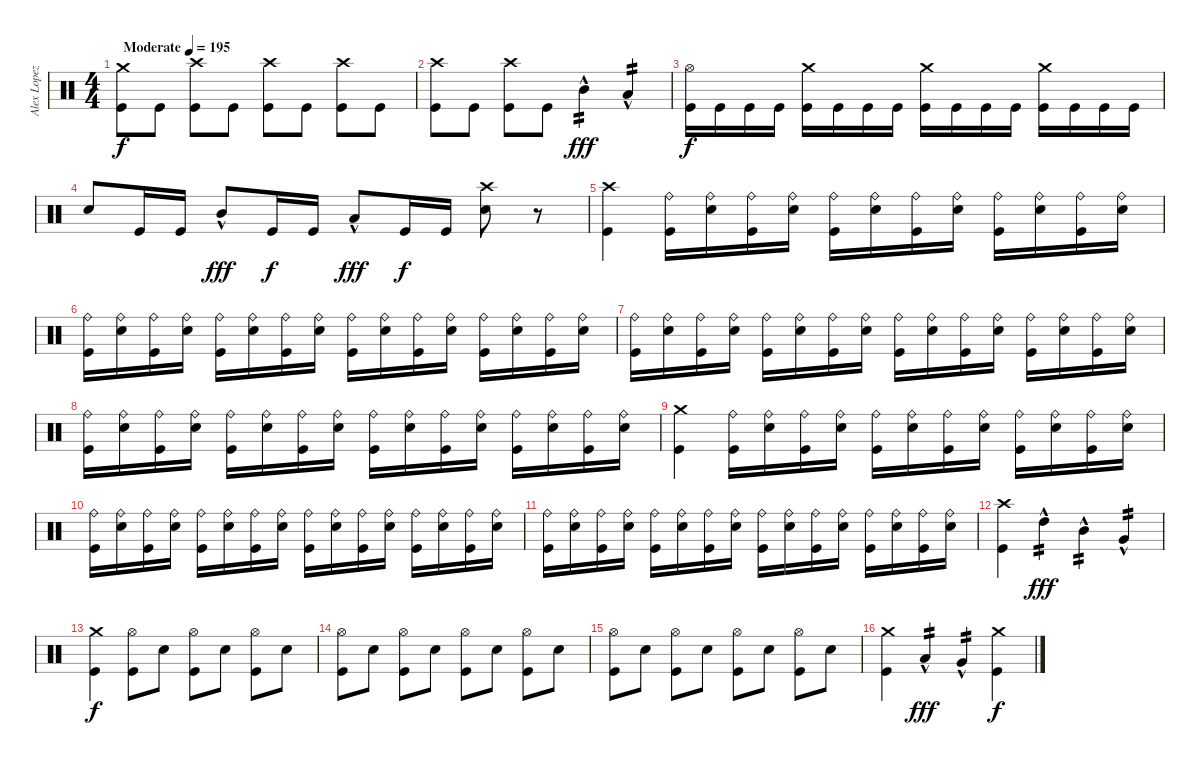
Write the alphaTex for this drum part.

\track ("Alex Lopez" "Alex Lopez") {instrument percussion}
\staff {score}
\articulation defaults
\ts (4 4)
\tempo (195 "Moderate")
\clef neutral
\ks c
("Crash medium (hit)" "Kick (hit)").8{dy f} "Kick (hit)".8 ("Crash high (hit)" "Kick (hit)").8 "Kick (hit)".8 ("Crash high (hit)" "Kick (hit)").8 "Kick (hit)".8 ("Crash high (hit)" "Kick (hit)").8 "Kick (hit)".8 |
("Crash high (hit)" "Kick (hit)").8 "Kick (hit)".8 ("Crash high (hit)" "Kick (hit)").8 "Kick (hit)".8 "Mid Tom (hit)"{hac}.4{tp 2 dy fff} "Low Tom (hit)"{hac}.4{tp 2} |
("Hi-Hat (open)" "Kick (hit)").16{dy f} "Kick (hit)".16 "Kick (hit)".16 "Kick (hit)".16 ("Crash medium (hit)" "Kick (hit)").16 "Kick (hit)".16 "Kick (hit)".16 "Kick (hit)".16 ("Crash medium (hit)" "Kick (hit)").16 "Kick (hit)".16 "Kick (hit)".16 "Kick (hit)".16 ("Crash medium (hit)" "Kick (hit)").16 "Kick (hit)".16 "Kick (hit)".16 "Kick (hit)".16 |
"Electric Snare (hit)".8 "Kick (hit)".16 "Kick (hit)".16 "Mid Tom (hit)"{hac}.8{dy fff} "Kick (hit)".16{dy f} "Kick (hit)".16 "Low Tom (hit)"{hac}.8{dy fff} "Kick (hit)".16{dy f} "Kick (hit)".16 ("Crash high (hit)" "Electric Snare (hit)").8 r.8 |
("Crash high (hit)" "Kick (hit)").4 ("Ride (bell)" "Kick (hit)").16 ("Ride (bell)" "Electric Snare (hit)").16 ("Ride (bell)" "Kick (hit)").16 ("Ride (bell)" "Electric Snare (hit)").16 ("Ride (bell)" "Kick (hit)").16 ("Ride (bell)" "Electric Snare (hit)").16 ("Ride (bell)" "Kick (hit)").16 ("Ride (bell)" "Electric Snare (hit)").16 ("Ride (bell)" "Kick (hit)").16 ("Ride (bell)" "Electric Snare (hit)").16 ("Ride (bell)" "Kick (hit)").16 ("Ride (bell)" "Electric Snare (hit)").16 |
("Ride (bell)" "Kick (hit)").16 ("Ride (bell)" "Electric Snare (hit)").16 ("Ride (bell)" "Kick (hit)").16 ("Ride (bell)" "Electric Snare (hit)").16 ("Ride (bell)" "Kick (hit)").16 ("Ride (bell)" "Electric Snare (hit)").16 ("Ride (bell)" "Kick (hit)").16 ("Ride (bell)" "Electric Snare (hit)").16 ("Ride (bell)" "Kick (hit)").16 ("Ride (bell)" "Electric Snare (hit)").16 ("Ride (bell)" "Kick (hit)").16 ("Ride (bell)" "Electric Snare (hit)").16 ("Ride (bell)" "Kick (hit)").16 ("Ride (bell)" "Electric Snare (hit)").16 ("Ride (bell)" "Kick (hit)").16 ("Ride (bell)" "Electric Snare (hit)").16 |
("Ride (bell)" "Kick (hit)").16 ("Ride (bell)" "Electric Snare (hit)").16 ("Ride (bell)" "Kick (hit)").16 ("Ride (bell)" "Electric Snare (hit)").16 ("Ride (bell)" "Kick (hit)").16 ("Ride (bell)" "Electric Snare (hit)").16 ("Ride (bell)" "Kick (hit)").16 ("Ride (bell)" "Electric Snare (hit)").16 ("Ride (bell)" "Kick (hit)").16 ("Ride (bell)" "Electric Snare (hit)").16 ("Ride (bell)" "Kick (hit)").16 ("Ride (bell)" "Electric Snare (hit)").16 ("Ride (bell)" "Kick (hit)").16 ("Ride (bell)" "Electric Snare (hit)").16 ("Ride (bell)" "Kick (hit)").16 ("Ride (bell)" "Electric Snare (hit)").16 |
("Ride (bell)" "Kick (hit)").16 ("Ride (bell)" "Electric Snare (hit)").16 ("Ride (bell)" "Kick (hit)").16 ("Ride (bell)" "Electric Snare (hit)").16 ("Ride (bell)" "Kick (hit)").16 ("Ride (bell)" "Electric Snare (hit)").16 ("Ride (bell)" "Kick (hit)").16 ("Ride (bell)" "Electric Snare (hit)").16 ("Ride (bell)" "Kick (hit)").16 ("Ride (bell)" "Electric Snare (hit)").16 ("Ride (bell)" "Kick (hit)").16 ("Ride (bell)" "Electric Snare (hit)").16 ("Ride (bell)" "Kick (hit)").16 ("Ride (bell)" "Electric Snare (hit)").16 ("Ride (bell)" "Kick (hit)").16 ("Ride (bell)" "Electric Snare (hit)").16 |
("Crash medium (hit)" "Kick (hit)").4 ("Ride (bell)" "Kick (hit)").16 ("Ride (bell)" "Electric Snare (hit)").16 ("Ride (bell)" "Kick (hit)").16 ("Ride (bell)" "Electric Snare (hit)").16 ("Ride (bell)" "Kick (hit)").16 ("Ride (bell)" "Electric Snare (hit)").16 ("Ride (bell)" "Kick (hit)").16 ("Ride (bell)" "Electric Snare (hit)").16 ("Ride (bell)" "Kick (hit)").16 ("Ride (bell)" "Electric Snare (hit)").16 ("Ride (bell)" "Kick (hit)").16 ("Ride (bell)" "Electric Snare (hit)").16 |
("Ride (bell)" "Kick (hit)").16 ("Ride (bell)" "Electric Snare (hit)").16 ("Ride (bell)" "Kick (hit)").16 ("Ride (bell)" "Electric Snare (hit)").16 ("Ride (bell)" "Kick (hit)").16 ("Ride (bell)" "Electric Snare (hit)").16 ("Ride (bell)" "Kick (hit)").16 ("Ride (bell)" "Electric Snare (hit)").16 ("Ride (bell)" "Kick (hit)").16 ("Ride (bell)" "Electric Snare (hit)").16 ("Ride (bell)" "Kick (hit)").16 ("Ride (bell)" "Electric Snare (hit)").16 ("Ride (bell)" "Kick (hit)").16 ("Ride (bell)" "Electric Snare (hit)").16 ("Ride (bell)" "Kick (hit)").16 ("Ride (bell)" "Electric Snare (hit)").16 |
("Ride (bell)" "Kick (hit)").16 ("Ride (bell)" "Electric Snare (hit)").16 ("Ride (bell)" "Kick (hit)").16 ("Ride (bell)" "Electric Snare (hit)").16 ("Ride (bell)" "Kick (hit)").16 ("Ride (bell)" "Electric Snare (hit)").16 ("Ride (bell)" "Kick (hit)").16 ("Ride (bell)" "Electric Snare (hit)").16 ("Ride (bell)" "Kick (hit)").16 ("Ride (bell)" "Electric Snare (hit)").16 ("Ride (bell)" "Kick (hit)").16 ("Ride (bell)" "Electric Snare (hit)").16 ("Ride (bell)" "Kick (hit)").16 ("Ride (bell)" "Electric Snare (hit)").16 ("Ride (bell)" "Kick (hit)").16 ("Ride (bell)" "Electric Snare (hit)").16 |
("Crash high (hit)" "Kick (hit)").4 "High Tom (hit)"{hac}.4{tp 2 dy fff} "Mid Tom (hit)"{hac}.4{tp 2} "Very Low Tom (hit)"{hac}.4{tp 2} |
("Crash medium (hit)" "Kick (hit)").4{dy f} ("Hi-Hat (open)" "Kick (hit)").8 "Electric Snare (hit)".8 ("Hi-Hat (open)" "Kick (hit)").8 "Electric Snare (hit)".8 ("Hi-Hat (open)" "Kick (hit)").8 "Electric Snare (hit)".8 |
("Hi-Hat (open)" "Kick (hit)").8 "Electric Snare (hit)".8 ("Hi-Hat (open)" "Kick (hit)").8 "Electric Snare (hit)".8 ("Hi-Hat (open)" "Kick (hit)").8 "Electric Snare (hit)".8 ("Hi-Hat (open)" "Kick (hit)").8 "Electric Snare (hit)".8 |
("Hi-Hat (open)" "Kick (hit)").8 "Electric Snare (hit)".8 ("Hi-Hat (open)" "Kick (hit)").8 "Electric Snare (hit)".8 ("Hi-Hat (open)" "Kick (hit)").8 "Electric Snare (hit)".8 ("Hi-Hat (open)" "Kick (hit)").8 "Electric Snare (hit)".8 |
("Crash medium (hit)" "Kick (hit)").4 "Low Tom (hit)"{hac}.4{tp 2 dy fff} "Very Low Tom (hit)"{hac}.4{tp 2} ("Crash medium (hit)" "Kick (hit)").4{dy f}
